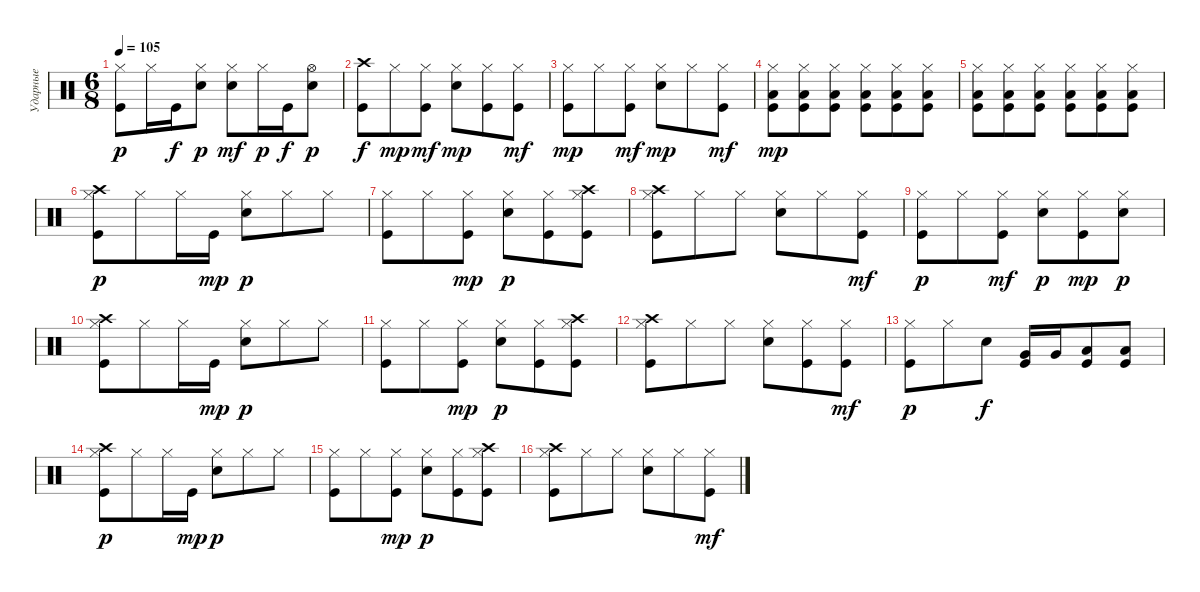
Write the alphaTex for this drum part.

\track ("Ударные" "Ударные") {instrument percussion}
\staff {score}
\articulation defaults
\ts (6 8)
\tempo 105
\clef neutral
\ks c
("Hi-Hat (closed)" "Kick (hit)").8{dy p} "Hi-Hat (closed)".16 "Kick (hit)".16{dy f} ("Hi-Hat (closed)" "Electric Snare (hit)").8{dy p} ("Hi-Hat (closed)" "Electric Snare (hit)").8{dy mf} "Hi-Hat (closed)".16{dy p} "Kick (hit)".16{dy f} ("Hi-Hat (open)" "Electric Snare (hit)").8{dy p} |
("Crash high (hit)" "Kick (hit)").8{dy f} "Hi-Hat (closed)".8{dy mp} ("Hi-Hat (closed)" "Kick (hit)").8{dy mf} ("Electric Snare (hit)" "Hi-Hat (closed)").8{dy mp} ("Kick (hit)" "Hi-Hat (closed)").8 ("Hi-Hat (closed)" "Kick (hit)").8{dy mf} |
("Hi-Hat (closed)" "Kick (hit)").8{dy mp} "Hi-Hat (closed)".8 ("Hi-Hat (closed)" "Kick (hit)").8{dy mf} ("Hi-Hat (closed)" "Electric Snare (hit)").8{dy mp} "Hi-Hat (closed)".8 ("Hi-Hat (closed)" "Kick (hit)").8{dy mf} |
("Hi-Hat (closed)" "Low Floor Tom (hit)" "Kick (hit)").8{dy mp} ("Hi-Hat (closed)" "Low Floor Tom (hit)" "Kick (hit)").8 ("Hi-Hat (closed)" "Low Floor Tom (hit)" "Kick (hit)").8 ("Hi-Hat (closed)" "Low Floor Tom (hit)" "Kick (hit)").8 ("Hi-Hat (closed)" "Low Floor Tom (hit)" "Kick (hit)").8 ("Hi-Hat (closed)" "Low Floor Tom (hit)" "Kick (hit)").8 |
("Hi-Hat (closed)" "Low Floor Tom (hit)" "Kick (hit)").8 ("Hi-Hat (closed)" "Low Floor Tom (hit)" "Kick (hit)").8 ("Hi-Hat (closed)" "Low Floor Tom (hit)" "Kick (hit)").8 ("Hi-Hat (closed)" "Low Floor Tom (hit)" "Kick (hit)").8 ("Hi-Hat (closed)" "Low Floor Tom (hit)" "Kick (hit)").8 ("Hi-Hat (closed)" "Low Floor Tom (hit)" "Kick (hit)").8 |
("Crash high (hit)" "Hi-Hat (closed)" "Kick (hit)").8{dy p} "Hi-Hat (closed)".8 "Hi-Hat (closed)".16 "Kick (hit)".16{dy mp} ("Hi-Hat (closed)" "Electric Snare (hit)").8{dy p} "Hi-Hat (closed)".8 "Hi-Hat (closed)".8 |
("Hi-Hat (closed)" "Kick (hit)").8 "Hi-Hat (closed)".8 ("Hi-Hat (closed)" "Kick (hit)").8{dy mp} ("Hi-Hat (closed)" "Electric Snare (hit)").8{dy p} ("Hi-Hat (closed)" "Kick (hit)").8 ("Crash high (hit)" "Hi-Hat (closed)" "Kick (hit)").8 |
("Crash high (hit)" "Hi-Hat (closed)" "Kick (hit)").8 "Hi-Hat (closed)".8 "Hi-Hat (closed)".8 ("Hi-Hat (closed)" "Electric Snare (hit)").8 "Hi-Hat (closed)".8 ("Hi-Hat (closed)" "Kick (hit)").8{dy mf} |
("Hi-Hat (closed)" "Kick (hit)").8{dy p} "Hi-Hat (closed)".8 ("Hi-Hat (closed)" "Kick (hit)").8{dy mf} ("Hi-Hat (closed)" "Electric Snare (hit)").8{dy p} ("Hi-Hat (closed)" "Kick (hit)").8{dy mp} ("Hi-Hat (closed)" "Electric Snare (hit)").8{dy p} |
("Crash high (hit)" "Hi-Hat (closed)" "Kick (hit)").8 "Hi-Hat (closed)".8 "Hi-Hat (closed)".16 "Kick (hit)".16{dy mp} ("Hi-Hat (closed)" "Electric Snare (hit)").8{dy p} "Hi-Hat (closed)".8 "Hi-Hat (closed)".8 |
("Hi-Hat (closed)" "Kick (hit)").8 "Hi-Hat (closed)".8 ("Hi-Hat (closed)" "Kick (hit)").8{dy mp} ("Hi-Hat (closed)" "Electric Snare (hit)").8{dy p} ("Hi-Hat (closed)" "Kick (hit)").8 ("Crash high (hit)" "Hi-Hat (closed)" "Kick (hit)").8 |
("Crash high (hit)" "Hi-Hat (closed)" "Kick (hit)").8 "Hi-Hat (closed)".8 "Hi-Hat (closed)".8 ("Hi-Hat (closed)" "Electric Snare (hit)").8 ("Hi-Hat (closed)" "Kick (hit)").8 ("Hi-Hat (closed)" "Kick (hit)").8{dy mf} |
("Hi-Hat (closed)" "Kick (hit)").8{dy p} "Hi-Hat (closed)".8 "Electric Snare (hit)".8{dy f} ("Kick (hit)" "Very Low Tom (hit)").16 "Very Low Tom (hit)".16 ("Kick (hit)" "Low Floor Tom (hit)").8 ("Kick (hit)" "Low Floor Tom (hit)").8 |
("Crash high (hit)" "Hi-Hat (closed)" "Kick (hit)").8{dy p} "Hi-Hat (closed)".8 "Hi-Hat (closed)".16 "Kick (hit)".16{dy mp} ("Hi-Hat (closed)" "Electric Snare (hit)").8{dy p} "Hi-Hat (closed)".8 "Hi-Hat (closed)".8 |
("Hi-Hat (closed)" "Kick (hit)").8 "Hi-Hat (closed)".8 ("Hi-Hat (closed)" "Kick (hit)").8{dy mp} ("Hi-Hat (closed)" "Electric Snare (hit)").8{dy p} ("Hi-Hat (closed)" "Kick (hit)").8 ("Crash high (hit)" "Hi-Hat (closed)" "Kick (hit)").8 |
("Crash high (hit)" "Hi-Hat (closed)" "Kick (hit)").8 "Hi-Hat (closed)".8 "Hi-Hat (closed)".8 ("Hi-Hat (closed)" "Electric Snare (hit)").8 "Hi-Hat (closed)".8 ("Hi-Hat (closed)" "Kick (hit)").8{dy mf}
